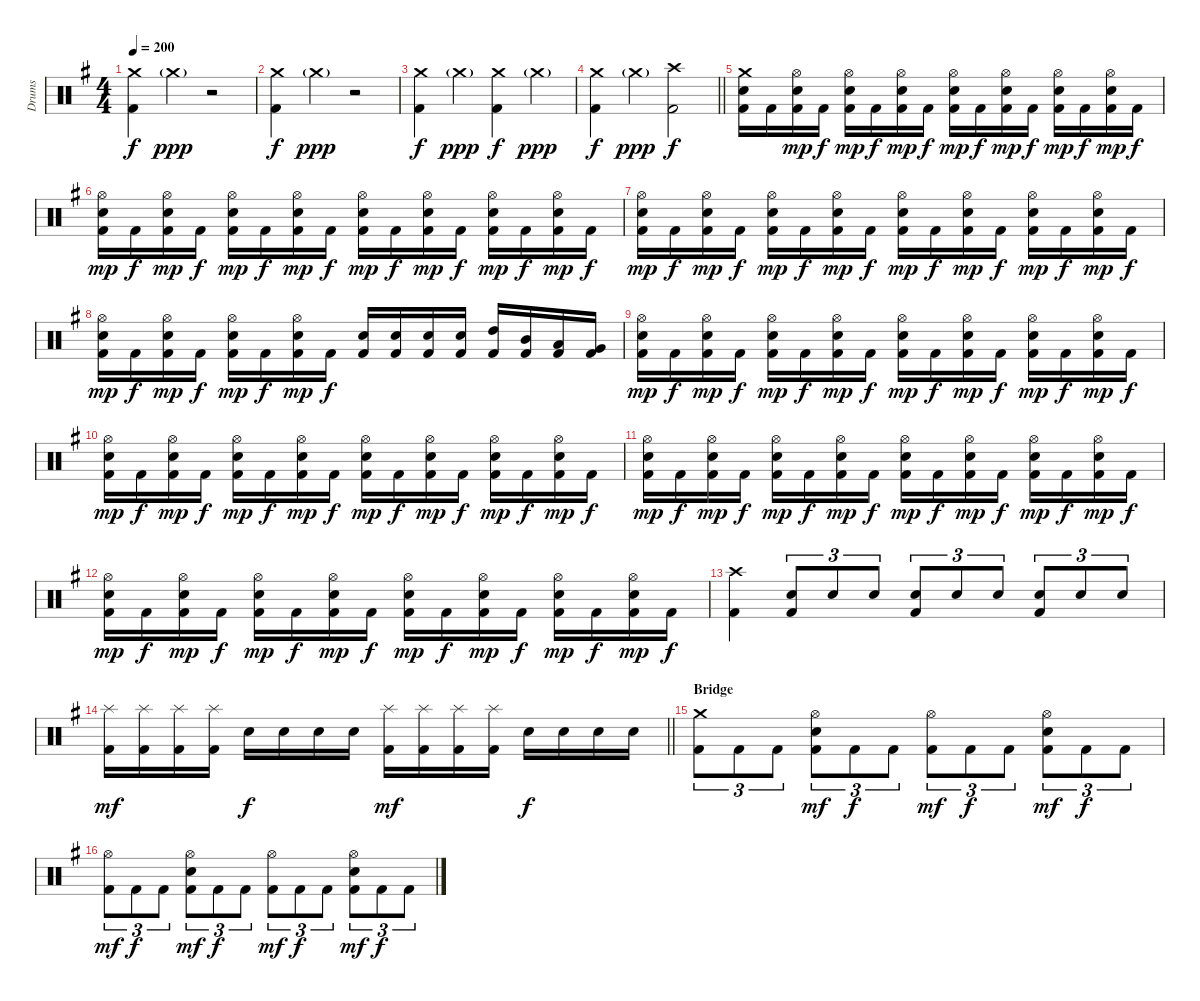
\track ("Drums" "Drums") {instrument percussion}
\staff {score}
\articulation defaults
\ts (4 4)
\tempo 200
\clef neutral
\ks g
("Crash medium (hit)" "Kick (hit) 2").4{dy f} "Crash medium (hit)"{g}.4{dy ppp} r.2 |
("Crash medium (hit)" "Kick (hit) 2").4{dy f} "Crash medium (hit)"{g}.4{dy ppp} r.2 |
("Crash medium (hit)" "Kick (hit) 2").4{dy f} "Crash medium (hit)"{g}.4{dy ppp} ("Crash medium (hit)" "Kick (hit) 2").4{dy f} "Crash medium (hit)"{g}.4{dy ppp} |
\barLineRight lightlight
("Crash medium (hit)" "Kick (hit) 2").4{dy f} "Crash medium (hit)"{g}.4{dy ppp} ("Crash high (hit)" "Kick (hit) 2").2{dy f} |
\section ("" "")
("Crash medium (hit)" "Snare (hit) 2" "Kick (hit) 2").16 "Kick (hit) 2".16 ("Hi-Hat (open)" "Snare (hit) 2" "Kick (hit) 2").16{dy mp} "Kick (hit) 2".16{dy f} ("Hi-Hat (open)" "Snare (hit) 2" "Kick (hit) 2").16{dy mp} "Kick (hit) 2".16{dy f} ("Hi-Hat (open)" "Snare (hit) 2" "Kick (hit) 2").16{dy mp} "Kick (hit) 2".16{dy f} ("Hi-Hat (open)" "Snare (hit) 2" "Kick (hit) 2").16{dy mp} "Kick (hit) 2".16{dy f} ("Hi-Hat (open)" "Snare (hit) 2" "Kick (hit) 2").16{dy mp} "Kick (hit) 2".16{dy f} ("Hi-Hat (open)" "Snare (hit) 2" "Kick (hit) 2").16{dy mp} "Kick (hit) 2".16{dy f} ("Hi-Hat (open)" "Snare (hit) 2" "Kick (hit) 2").16{dy mp} "Kick (hit) 2".16{dy f} |
("Hi-Hat (open)" "Snare (hit) 2" "Kick (hit) 2").16{dy mp} "Kick (hit) 2".16{dy f} ("Hi-Hat (open)" "Snare (hit) 2" "Kick (hit) 2").16{dy mp} "Kick (hit) 2".16{dy f} ("Hi-Hat (open)" "Snare (hit) 2" "Kick (hit) 2").16{dy mp} "Kick (hit) 2".16{dy f} ("Hi-Hat (open)" "Snare (hit) 2" "Kick (hit) 2").16{dy mp} "Kick (hit) 2".16{dy f} ("Hi-Hat (open)" "Snare (hit) 2" "Kick (hit) 2").16{dy mp} "Kick (hit) 2".16{dy f} ("Hi-Hat (open)" "Snare (hit) 2" "Kick (hit) 2").16{dy mp} "Kick (hit) 2".16{dy f} ("Hi-Hat (open)" "Snare (hit) 2" "Kick (hit) 2").16{dy mp} "Kick (hit) 2".16{dy f} ("Hi-Hat (open)" "Snare (hit) 2" "Kick (hit) 2").16{dy mp} "Kick (hit) 2".16{dy f} |
("Hi-Hat (open)" "Snare (hit) 2" "Kick (hit) 2").16{dy mp} "Kick (hit) 2".16{dy f} ("Hi-Hat (open)" "Snare (hit) 2" "Kick (hit) 2").16{dy mp} "Kick (hit) 2".16{dy f} ("Hi-Hat (open)" "Snare (hit) 2" "Kick (hit) 2").16{dy mp} "Kick (hit) 2".16{dy f} ("Hi-Hat (open)" "Snare (hit) 2" "Kick (hit) 2").16{dy mp} "Kick (hit) 2".16{dy f} ("Hi-Hat (open)" "Snare (hit) 2" "Kick (hit) 2").16{dy mp} "Kick (hit) 2".16{dy f} ("Hi-Hat (open)" "Snare (hit) 2" "Kick (hit) 2").16{dy mp} "Kick (hit) 2".16{dy f} ("Hi-Hat (open)" "Snare (hit) 2" "Kick (hit) 2").16{dy mp} "Kick (hit) 2".16{dy f} ("Hi-Hat (open)" "Snare (hit) 2" "Kick (hit) 2").16{dy mp} "Kick (hit) 2".16{dy f} |
("Hi-Hat (open)" "Snare (hit) 2" "Kick (hit) 2").16{dy mp} "Kick (hit) 2".16{dy f} ("Hi-Hat (open)" "Snare (hit) 2" "Kick (hit) 2").16{dy mp} "Kick (hit) 2".16{dy f} ("Hi-Hat (open)" "Snare (hit) 2" "Kick (hit) 2").16{dy mp} "Kick (hit) 2".16{dy f} ("Hi-Hat (open)" "Snare (hit) 2" "Kick (hit) 2").16{dy mp} "Kick (hit) 2".16{dy f} ("Snare (hit) 2" "Kick (hit) 2").16 ("Snare (hit) 2" "Kick (hit) 2").16 ("Snare (hit) 2" "Kick (hit) 2").16 ("Snare (hit) 2" "Kick (hit) 2").16 ("High Tom (hit)" "Kick (hit) 2").16 ("Mid Tom (hit)" "Kick (hit) 2").16 ("Low Tom (hit)" "Kick (hit) 2").16 ("Very Low Tom (hit)" "Kick (hit) 2").16 |
("Hi-Hat (open)" "Snare (hit) 2" "Kick (hit) 2").16{dy mp} "Kick (hit) 2".16{dy f} ("Hi-Hat (open)" "Snare (hit) 2" "Kick (hit) 2").16{dy mp} "Kick (hit) 2".16{dy f} ("Hi-Hat (open)" "Snare (hit) 2" "Kick (hit) 2").16{dy mp} "Kick (hit) 2".16{dy f} ("Hi-Hat (open)" "Snare (hit) 2" "Kick (hit) 2").16{dy mp} "Kick (hit) 2".16{dy f} ("Hi-Hat (open)" "Snare (hit) 2" "Kick (hit) 2").16{dy mp} "Kick (hit) 2".16{dy f} ("Hi-Hat (open)" "Snare (hit) 2" "Kick (hit) 2").16{dy mp} "Kick (hit) 2".16{dy f} ("Hi-Hat (open)" "Snare (hit) 2" "Kick (hit) 2").16{dy mp} "Kick (hit) 2".16{dy f} ("Hi-Hat (open)" "Snare (hit) 2" "Kick (hit) 2").16{dy mp} "Kick (hit) 2".16{dy f} |
("Hi-Hat (open)" "Snare (hit) 2" "Kick (hit) 2").16{dy mp} "Kick (hit) 2".16{dy f} ("Hi-Hat (open)" "Snare (hit) 2" "Kick (hit) 2").16{dy mp} "Kick (hit) 2".16{dy f} ("Hi-Hat (open)" "Snare (hit) 2" "Kick (hit) 2").16{dy mp} "Kick (hit) 2".16{dy f} ("Hi-Hat (open)" "Snare (hit) 2" "Kick (hit) 2").16{dy mp} "Kick (hit) 2".16{dy f} ("Hi-Hat (open)" "Snare (hit) 2" "Kick (hit) 2").16{dy mp} "Kick (hit) 2".16{dy f} ("Hi-Hat (open)" "Snare (hit) 2" "Kick (hit) 2").16{dy mp} "Kick (hit) 2".16{dy f} ("Hi-Hat (open)" "Snare (hit) 2" "Kick (hit) 2").16{dy mp} "Kick (hit) 2".16{dy f} ("Hi-Hat (open)" "Snare (hit) 2" "Kick (hit) 2").16{dy mp} "Kick (hit) 2".16{dy f} |
("Hi-Hat (open)" "Snare (hit) 2" "Kick (hit) 2").16{dy mp} "Kick (hit) 2".16{dy f} ("Hi-Hat (open)" "Snare (hit) 2" "Kick (hit) 2").16{dy mp} "Kick (hit) 2".16{dy f} ("Hi-Hat (open)" "Snare (hit) 2" "Kick (hit) 2").16{dy mp} "Kick (hit) 2".16{dy f} ("Hi-Hat (open)" "Snare (hit) 2" "Kick (hit) 2").16{dy mp} "Kick (hit) 2".16{dy f} ("Hi-Hat (open)" "Snare (hit) 2" "Kick (hit) 2").16{dy mp} "Kick (hit) 2".16{dy f} ("Hi-Hat (open)" "Snare (hit) 2" "Kick (hit) 2").16{dy mp} "Kick (hit) 2".16{dy f} ("Hi-Hat (open)" "Snare (hit) 2" "Kick (hit) 2").16{dy mp} "Kick (hit) 2".16{dy f} ("Hi-Hat (open)" "Snare (hit) 2" "Kick (hit) 2").16{dy mp} "Kick (hit) 2".16{dy f} |
("Hi-Hat (open)" "Snare (hit) 2" "Kick (hit) 2").16{dy mp} "Kick (hit) 2".16{dy f} ("Hi-Hat (open)" "Snare (hit) 2" "Kick (hit) 2").16{dy mp} "Kick (hit) 2".16{dy f} ("Hi-Hat (open)" "Snare (hit) 2" "Kick (hit) 2").16{dy mp} "Kick (hit) 2".16{dy f} ("Hi-Hat (open)" "Snare (hit) 2" "Kick (hit) 2").16{dy mp} "Kick (hit) 2".16{dy f} ("Hi-Hat (open)" "Snare (hit) 2" "Kick (hit) 2").16{dy mp} "Kick (hit) 2".16{dy f} ("Hi-Hat (open)" "Snare (hit) 2" "Kick (hit) 2").16{dy mp} "Kick (hit) 2".16{dy f} ("Hi-Hat (open)" "Snare (hit) 2" "Kick (hit) 2").16{dy mp} "Kick (hit) 2".16{dy f} ("Hi-Hat (open)" "Snare (hit) 2" "Kick (hit) 2").16{dy mp} "Kick (hit) 2".16{dy f} |
("Crash high (hit)" "Kick (hit) 2").4 ("Snare (hit) 2" "Kick (hit) 2").8{tu (3 2)} "Snare (hit) 2".8{tu (3 2)} "Snare (hit) 2".8{tu (3 2)} ("Snare (hit) 2" "Kick (hit) 2").8{tu (3 2)} "Snare (hit) 2".8{tu (3 2)} "Snare (hit) 2".8{tu (3 2)} ("Snare (hit) 2" "Kick (hit) 2").8{tu (3 2)} "Snare (hit) 2".8{tu (3 2)} "Snare (hit) 2".8{tu (3 2)} |
\barLineRight lightlight
("Splash (hit)" "Kick (hit) 2").16{dy mf} ("Splash (hit)" "Kick (hit) 2").16 ("Splash (hit)" "Kick (hit) 2").16 ("Splash (hit)" "Kick (hit) 2").16 "Snare (hit) 2".16{dy f} "Snare (hit) 2".16 "Snare (hit) 2".16 "Snare (hit) 2".16 ("Splash (hit)" "Kick (hit) 2").16{dy mf} ("Splash (hit)" "Kick (hit) 2").16 ("Splash (hit)" "Kick (hit) 2").16 ("Splash (hit)" "Kick (hit) 2").16 "Snare (hit) 2".16{dy f} "Snare (hit) 2".16 "Snare (hit) 2".16 "Snare (hit) 2".16 |
\section ("" "Bridge")
("Crash medium (hit)" "Kick (hit) 2").8{tu (3 2)} "Kick (hit) 2".8{tu (3 2)} "Kick (hit) 2".8{tu (3 2)} ("Hi-Hat (open)" "Snare (hit) 2" "Kick (hit) 2").8{tu (3 2) dy mf} "Kick (hit) 2".8{tu (3 2) dy f} "Kick (hit) 2".8{tu (3 2)} ("Hi-Hat (open)" "Kick (hit) 2").8{tu (3 2) dy mf} "Kick (hit) 2".8{tu (3 2) dy f} "Kick (hit) 2".8{tu (3 2)} ("Hi-Hat (open)" "Snare (hit) 2" "Kick (hit) 2").8{tu (3 2) dy mf} "Kick (hit) 2".8{tu (3 2) dy f} "Kick (hit) 2".8{tu (3 2)} |
("Hi-Hat (open)" "Kick (hit) 2").8{tu (3 2) dy mf} "Kick (hit) 2".8{tu (3 2) dy f} "Kick (hit) 2".8{tu (3 2)} ("Hi-Hat (open)" "Snare (hit) 2" "Kick (hit) 2").8{tu (3 2) dy mf} "Kick (hit) 2".8{tu (3 2) dy f} "Kick (hit) 2".8{tu (3 2)} ("Hi-Hat (open)" "Kick (hit) 2").8{tu (3 2) dy mf} "Kick (hit) 2".8{tu (3 2) dy f} "Kick (hit) 2".8{tu (3 2)} ("Hi-Hat (open)" "Snare (hit) 2" "Kick (hit) 2").8{tu (3 2) dy mf} "Kick (hit) 2".8{tu (3 2) dy f} "Kick (hit) 2".8{tu (3 2)}
